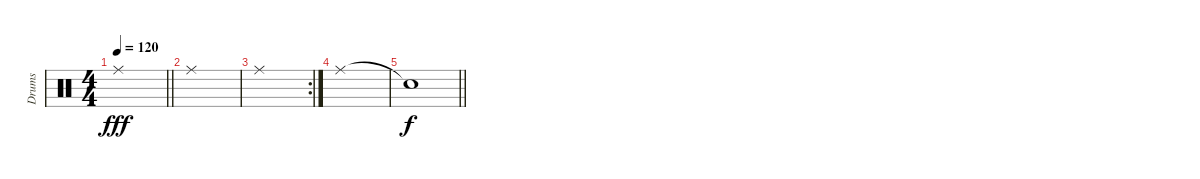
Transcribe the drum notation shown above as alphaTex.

\track ("Drums" "Drums") {instrument percussion}
\staff {score}
\articulation defaults
\ts (4 4)
\tempo 120
\clef neutral
\barLineRight lightlight
\ks c "Ride (middle)".1{dy fff}
|
\ks aminor "Ride (middle)".1
|
\rc 2 "Ride (middle)".1
|
\ks c "Ride (middle)".1
|
\barLineRight lightlight "Snare (hit)"{t}.1{dy f}
